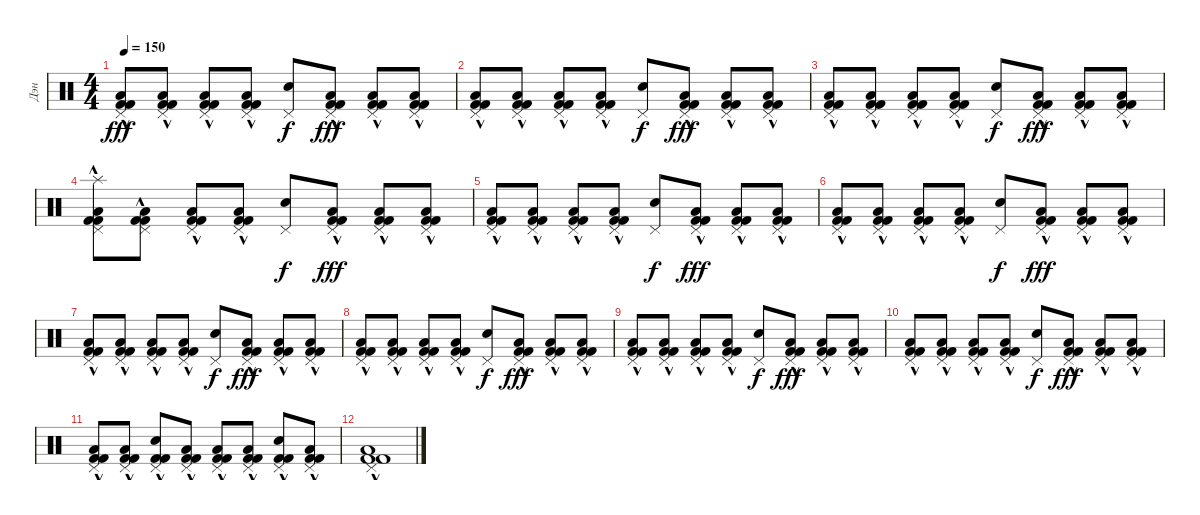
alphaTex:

\track ("Дэн" "Дэн") {instrument percussion}
\staff {score}
\articulation defaults
\ts (4 4)
\tempo 150
\clef neutral
\ks c
("Low Floor Tom (hit)" "Kick (hit) 2"{hac} "Kick (hit) 2"{hac} "Pedal Hi-Hat (hit)").8{dy fff} ("Low Floor Tom (hit)" "Kick (hit) 2"{hac} "Kick (hit) 2"{hac} "Pedal Hi-Hat (hit)").8 ("Low Floor Tom (hit)" "Kick (hit) 2"{hac} "Kick (hit) 2"{hac} "Pedal Hi-Hat (hit)").8 ("Low Floor Tom (hit)" "Kick (hit) 2"{hac} "Kick (hit) 2"{hac} "Pedal Hi-Hat (hit)").8 ("Electric Snare (hit)" "Pedal Hi-Hat (hit)").8{dy f} ("Low Floor Tom (hit)" "Kick (hit) 2"{hac} "Kick (hit) 2"{hac} "Pedal Hi-Hat (hit)").8{dy fff} ("Low Floor Tom (hit)" "Kick (hit) 2"{hac} "Kick (hit) 2"{hac} "Pedal Hi-Hat (hit)").8 ("Low Floor Tom (hit)" "Kick (hit) 2"{hac} "Kick (hit) 2"{hac} "Pedal Hi-Hat (hit)").8 |
("Low Floor Tom (hit)" "Kick (hit) 2"{hac} "Kick (hit) 2"{hac} "Pedal Hi-Hat (hit)").8 ("Low Floor Tom (hit)" "Kick (hit) 2"{hac} "Kick (hit) 2"{hac} "Pedal Hi-Hat (hit)").8 ("Low Floor Tom (hit)" "Kick (hit) 2"{hac} "Kick (hit) 2"{hac} "Pedal Hi-Hat (hit)").8 ("Low Floor Tom (hit)" "Kick (hit) 2"{hac} "Kick (hit) 2"{hac} "Pedal Hi-Hat (hit)").8 ("Electric Snare (hit)" "Pedal Hi-Hat (hit)").8{dy f} ("Low Floor Tom (hit)" "Kick (hit) 2"{hac} "Kick (hit) 2"{hac} "Pedal Hi-Hat (hit)").8{dy fff} ("Low Floor Tom (hit)" "Kick (hit) 2"{hac} "Kick (hit) 2"{hac} "Pedal Hi-Hat (hit)").8 ("Low Floor Tom (hit)" "Kick (hit) 2"{hac} "Kick (hit) 2"{hac} "Pedal Hi-Hat (hit)").8 |
("Low Floor Tom (hit)" "Kick (hit) 2"{hac} "Kick (hit) 2"{hac} "Pedal Hi-Hat (hit)").8 ("Low Floor Tom (hit)" "Kick (hit) 2"{hac} "Kick (hit) 2"{hac} "Pedal Hi-Hat (hit)").8 ("Low Floor Tom (hit)" "Kick (hit) 2"{hac} "Kick (hit) 2"{hac} "Pedal Hi-Hat (hit)").8 ("Low Floor Tom (hit)" "Kick (hit) 2"{hac} "Kick (hit) 2"{hac} "Pedal Hi-Hat (hit)").8 ("Electric Snare (hit)" "Pedal Hi-Hat (hit)").8{dy f} ("Low Floor Tom (hit)" "Kick (hit) 2"{hac} "Kick (hit) 2"{hac} "Pedal Hi-Hat (hit)").8{dy fff} ("Low Floor Tom (hit)" "Kick (hit) 2"{hac} "Kick (hit) 2"{hac} "Pedal Hi-Hat (hit)").8 ("Low Floor Tom (hit)" "Kick (hit) 2"{hac} "Kick (hit) 2"{hac} "Pedal Hi-Hat (hit)").8 |
("Splash (hit)" "Low Floor Tom (hit)" "Kick (hit) 2"{hac} "Kick (hit) 2"{hac} "Pedal Hi-Hat (hit)").8 ("Low Floor Tom (hit)" "Kick (hit) 2"{hac} "Kick (hit) 2"{hac} "Pedal Hi-Hat (hit)").8 ("Low Floor Tom (hit)" "Kick (hit) 2"{hac} "Kick (hit) 2"{hac} "Pedal Hi-Hat (hit)").8 ("Low Floor Tom (hit)" "Kick (hit) 2"{hac} "Kick (hit) 2"{hac} "Pedal Hi-Hat (hit)").8 ("Electric Snare (hit)" "Pedal Hi-Hat (hit)").8{dy f} ("Low Floor Tom (hit)" "Kick (hit) 2"{hac} "Kick (hit) 2"{hac} "Pedal Hi-Hat (hit)").8{dy fff} ("Low Floor Tom (hit)" "Kick (hit) 2"{hac} "Kick (hit) 2"{hac} "Pedal Hi-Hat (hit)").8 ("Low Floor Tom (hit)" "Kick (hit) 2"{hac} "Kick (hit) 2"{hac} "Pedal Hi-Hat (hit)").8 |
("Low Floor Tom (hit)" "Kick (hit) 2"{hac} "Kick (hit) 2"{hac} "Pedal Hi-Hat (hit)").8 ("Low Floor Tom (hit)" "Kick (hit) 2"{hac} "Kick (hit) 2"{hac} "Pedal Hi-Hat (hit)").8 ("Low Floor Tom (hit)" "Kick (hit) 2"{hac} "Kick (hit) 2"{hac} "Pedal Hi-Hat (hit)").8 ("Low Floor Tom (hit)" "Kick (hit) 2"{hac} "Kick (hit) 2"{hac} "Pedal Hi-Hat (hit)").8 ("Electric Snare (hit)" "Pedal Hi-Hat (hit)").8{dy f} ("Low Floor Tom (hit)" "Kick (hit) 2"{hac} "Kick (hit) 2"{hac} "Pedal Hi-Hat (hit)").8{dy fff} ("Low Floor Tom (hit)" "Kick (hit) 2"{hac} "Kick (hit) 2"{hac} "Pedal Hi-Hat (hit)").8 ("Low Floor Tom (hit)" "Kick (hit) 2"{hac} "Kick (hit) 2"{hac} "Pedal Hi-Hat (hit)").8 |
("Low Floor Tom (hit)" "Kick (hit) 2"{hac} "Kick (hit) 2"{hac} "Pedal Hi-Hat (hit)").8 ("Low Floor Tom (hit)" "Kick (hit) 2"{hac} "Kick (hit) 2"{hac} "Pedal Hi-Hat (hit)").8 ("Low Floor Tom (hit)" "Kick (hit) 2"{hac} "Kick (hit) 2"{hac} "Pedal Hi-Hat (hit)").8 ("Low Floor Tom (hit)" "Kick (hit) 2"{hac} "Kick (hit) 2"{hac} "Pedal Hi-Hat (hit)").8 ("Electric Snare (hit)" "Pedal Hi-Hat (hit)").8{dy f} ("Low Floor Tom (hit)" "Kick (hit) 2"{hac} "Kick (hit) 2"{hac} "Pedal Hi-Hat (hit)").8{dy fff} ("Low Floor Tom (hit)" "Kick (hit) 2"{hac} "Kick (hit) 2"{hac} "Pedal Hi-Hat (hit)").8 ("Low Floor Tom (hit)" "Kick (hit) 2"{hac} "Kick (hit) 2"{hac} "Pedal Hi-Hat (hit)").8 |
("Low Floor Tom (hit)" "Kick (hit) 2"{hac} "Kick (hit) 2"{hac} "Pedal Hi-Hat (hit)").8 ("Low Floor Tom (hit)" "Kick (hit) 2"{hac} "Kick (hit) 2"{hac} "Pedal Hi-Hat (hit)").8 ("Low Floor Tom (hit)" "Kick (hit) 2"{hac} "Kick (hit) 2"{hac} "Pedal Hi-Hat (hit)").8 ("Low Floor Tom (hit)" "Kick (hit) 2"{hac} "Kick (hit) 2"{hac} "Pedal Hi-Hat (hit)").8 ("Electric Snare (hit)" "Pedal Hi-Hat (hit)").8{dy f} ("Low Floor Tom (hit)" "Kick (hit) 2"{hac} "Kick (hit) 2"{hac} "Pedal Hi-Hat (hit)").8{dy fff} ("Low Floor Tom (hit)" "Kick (hit) 2"{hac} "Kick (hit) 2"{hac} "Pedal Hi-Hat (hit)").8 ("Low Floor Tom (hit)" "Kick (hit) 2"{hac} "Kick (hit) 2"{hac} "Pedal Hi-Hat (hit)").8 |
("Low Floor Tom (hit)" "Kick (hit) 2"{hac} "Kick (hit) 2"{hac} "Pedal Hi-Hat (hit)").8 ("Low Floor Tom (hit)" "Kick (hit) 2"{hac} "Kick (hit) 2"{hac} "Pedal Hi-Hat (hit)").8 ("Low Floor Tom (hit)" "Kick (hit) 2"{hac} "Kick (hit) 2"{hac} "Pedal Hi-Hat (hit)").8 ("Low Floor Tom (hit)" "Kick (hit) 2"{hac} "Kick (hit) 2"{hac} "Pedal Hi-Hat (hit)").8 ("Electric Snare (hit)" "Pedal Hi-Hat (hit)").8{dy f} ("Low Floor Tom (hit)" "Kick (hit) 2"{hac} "Kick (hit) 2"{hac} "Pedal Hi-Hat (hit)").8{dy fff} ("Low Floor Tom (hit)" "Kick (hit) 2"{hac} "Kick (hit) 2"{hac} "Pedal Hi-Hat (hit)").8 ("Low Floor Tom (hit)" "Kick (hit) 2"{hac} "Kick (hit) 2"{hac} "Pedal Hi-Hat (hit)").8 |
("Low Floor Tom (hit)" "Kick (hit) 2"{hac} "Kick (hit) 2"{hac} "Pedal Hi-Hat (hit)").8 ("Low Floor Tom (hit)" "Kick (hit) 2"{hac} "Kick (hit) 2"{hac} "Pedal Hi-Hat (hit)").8 ("Low Floor Tom (hit)" "Kick (hit) 2"{hac} "Kick (hit) 2"{hac} "Pedal Hi-Hat (hit)").8 ("Low Floor Tom (hit)" "Kick (hit) 2"{hac} "Kick (hit) 2"{hac} "Pedal Hi-Hat (hit)").8 ("Electric Snare (hit)" "Pedal Hi-Hat (hit)").8{dy f} ("Low Floor Tom (hit)" "Kick (hit) 2"{hac} "Kick (hit) 2"{hac} "Pedal Hi-Hat (hit)").8{dy fff} ("Low Floor Tom (hit)" "Kick (hit) 2"{hac} "Kick (hit) 2"{hac} "Pedal Hi-Hat (hit)").8 ("Low Floor Tom (hit)" "Kick (hit) 2"{hac} "Kick (hit) 2"{hac} "Pedal Hi-Hat (hit)").8 |
("Low Floor Tom (hit)" "Kick (hit) 2"{hac} "Kick (hit) 2"{hac} "Pedal Hi-Hat (hit)").8 ("Low Floor Tom (hit)" "Kick (hit) 2"{hac} "Kick (hit) 2"{hac} "Pedal Hi-Hat (hit)").8 ("Low Floor Tom (hit)" "Kick (hit) 2"{hac} "Kick (hit) 2"{hac} "Pedal Hi-Hat (hit)").8 ("Low Floor Tom (hit)" "Kick (hit) 2"{hac} "Kick (hit) 2"{hac} "Pedal Hi-Hat (hit)").8 ("Electric Snare (hit)" "Pedal Hi-Hat (hit)").8{dy f} ("Low Floor Tom (hit)" "Kick (hit) 2"{hac} "Kick (hit) 2"{hac} "Pedal Hi-Hat (hit)").8{dy fff} ("Low Floor Tom (hit)" "Kick (hit) 2"{hac} "Kick (hit) 2"{hac} "Pedal Hi-Hat (hit)").8 ("Low Floor Tom (hit)" "Kick (hit) 2"{hac} "Kick (hit) 2"{hac} "Pedal Hi-Hat (hit)").8 |
("Low Floor Tom (hit)" "Kick (hit) 2"{hac} "Kick (hit) 2"{hac} "Pedal Hi-Hat (hit)").8 ("Low Floor Tom (hit)" "Kick (hit) 2"{hac} "Kick (hit) 2"{hac} "Pedal Hi-Hat (hit)").8 ("Electric Snare (hit)" "Kick (hit) 2"{hac} "Kick (hit) 2"{hac} "Pedal Hi-Hat (hit)").8 ("Low Floor Tom (hit)" "Kick (hit) 2"{hac} "Kick (hit) 2"{hac} "Pedal Hi-Hat (hit)").8 ("Low Floor Tom (hit)" "Kick (hit) 2"{hac} "Kick (hit) 2"{hac} "Pedal Hi-Hat (hit)").8 ("Low Floor Tom (hit)" "Kick (hit) 2"{hac} "Kick (hit) 2"{hac} "Pedal Hi-Hat (hit)").8 ("Electric Snare (hit)" "Kick (hit) 2"{hac} "Kick (hit) 2"{hac} "Pedal Hi-Hat (hit)").8 ("Low Floor Tom (hit)" "Kick (hit) 2"{hac} "Kick (hit) 2"{hac} "Pedal Hi-Hat (hit)").8 |
("Low Floor Tom (hit)" "Kick (hit) 2"{hac} "Kick (hit) 2"{hac} "Pedal Hi-Hat (hit)").1
